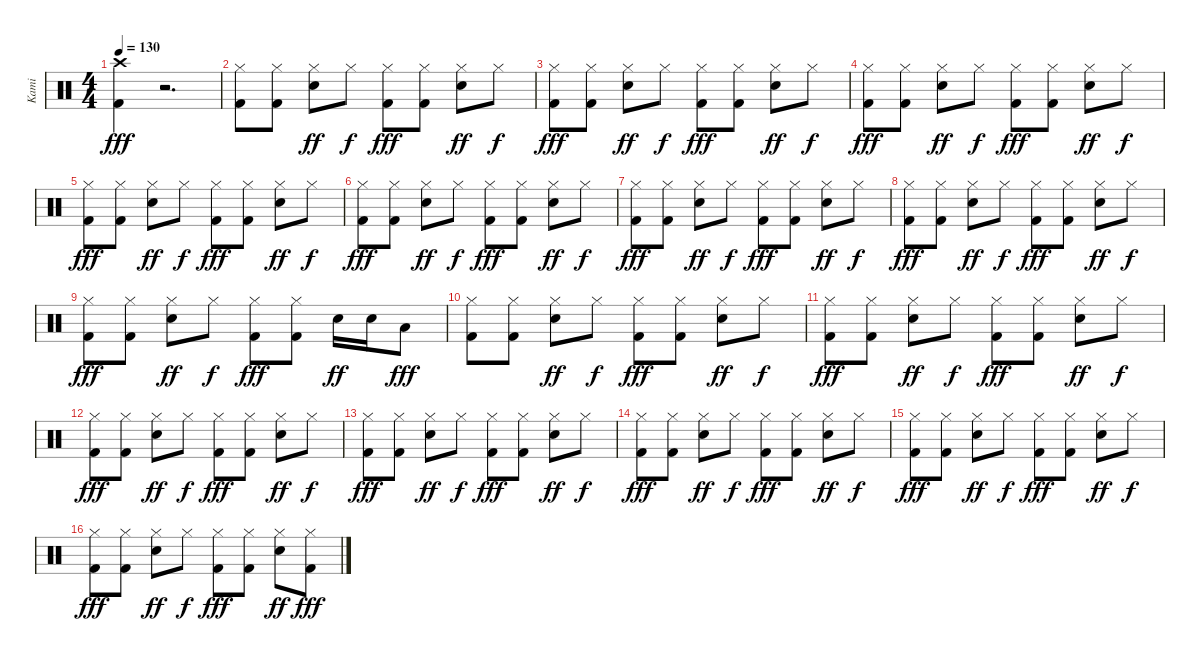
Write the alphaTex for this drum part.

\track ("Kami" "Kami") {instrument percussion}
\staff {score}
\articulation defaults
\ts (4 4)
\tempo 130
\clef neutral
\ks c
("Crash high (hit)" "Kick (hit) 2").4{dy fff} r.2{d} |
("Hi-Hat (closed)" "Kick (hit) 2").8 ("Hi-Hat (closed)" "Kick (hit) 2").8 ("Hi-Hat (closed)" "Snare (hit) 2").8{dy ff} "Hi-Hat (closed)".8{dy f} ("Hi-Hat (closed)" "Kick (hit) 2").8{dy fff} ("Hi-Hat (closed)" "Kick (hit) 2").8 ("Hi-Hat (closed)" "Snare (hit) 2").8{dy ff} "Hi-Hat (closed)".8{dy f} |
("Hi-Hat (closed)" "Kick (hit) 2").8{dy fff} ("Hi-Hat (closed)" "Kick (hit) 2").8 ("Hi-Hat (closed)" "Snare (hit) 2").8{dy ff} "Hi-Hat (closed)".8{dy f} ("Hi-Hat (closed)" "Kick (hit) 2").8{dy fff} ("Hi-Hat (closed)" "Kick (hit) 2").8 ("Hi-Hat (closed)" "Snare (hit) 2").8{dy ff} "Hi-Hat (closed)".8{dy f} |
("Hi-Hat (closed)" "Kick (hit) 2").8{dy fff} ("Hi-Hat (closed)" "Kick (hit) 2").8 ("Hi-Hat (closed)" "Snare (hit) 2").8{dy ff} "Hi-Hat (closed)".8{dy f} ("Hi-Hat (closed)" "Kick (hit) 2").8{dy fff} ("Hi-Hat (closed)" "Kick (hit) 2").8 ("Hi-Hat (closed)" "Snare (hit) 2").8{dy ff} "Hi-Hat (closed)".8{dy f} |
("Hi-Hat (closed)" "Kick (hit) 2").8{dy fff} ("Hi-Hat (closed)" "Kick (hit) 2").8 ("Hi-Hat (closed)" "Snare (hit) 2").8{dy ff} "Hi-Hat (closed)".8{dy f} ("Hi-Hat (closed)" "Kick (hit) 2").8{dy fff} ("Hi-Hat (closed)" "Kick (hit) 2").8 ("Hi-Hat (closed)" "Snare (hit) 2").8{dy ff} "Hi-Hat (closed)".8{dy f} |
("Hi-Hat (closed)" "Kick (hit) 2").8{dy fff} ("Hi-Hat (closed)" "Kick (hit) 2").8 ("Hi-Hat (closed)" "Snare (hit) 2").8{dy ff} "Hi-Hat (closed)".8{dy f} ("Hi-Hat (closed)" "Kick (hit) 2").8{dy fff} ("Hi-Hat (closed)" "Kick (hit) 2").8 ("Hi-Hat (closed)" "Snare (hit) 2").8{dy ff} "Hi-Hat (closed)".8{dy f} |
("Hi-Hat (closed)" "Kick (hit) 2").8{dy fff} ("Hi-Hat (closed)" "Kick (hit) 2").8 ("Hi-Hat (closed)" "Snare (hit) 2").8{dy ff} "Hi-Hat (closed)".8{dy f} ("Hi-Hat (closed)" "Kick (hit) 2").8{dy fff} ("Hi-Hat (closed)" "Kick (hit) 2").8 ("Hi-Hat (closed)" "Snare (hit) 2").8{dy ff} "Hi-Hat (closed)".8{dy f} |
("Hi-Hat (closed)" "Kick (hit) 2").8{dy fff} ("Hi-Hat (closed)" "Kick (hit) 2").8 ("Hi-Hat (closed)" "Snare (hit) 2").8{dy ff} "Hi-Hat (closed)".8{dy f} ("Hi-Hat (closed)" "Kick (hit) 2").8{dy fff} ("Hi-Hat (closed)" "Kick (hit) 2").8 ("Hi-Hat (closed)" "Snare (hit) 2").8{dy ff} "Hi-Hat (closed)".8{dy f} |
("Hi-Hat (closed)" "Kick (hit) 2").8{dy fff} ("Hi-Hat (closed)" "Kick (hit) 2").8 ("Hi-Hat (closed)" "Snare (hit) 2").8{dy ff} "Hi-Hat (closed)".8{dy f} ("Hi-Hat (closed)" "Kick (hit) 2").8{dy fff} ("Hi-Hat (closed)" "Kick (hit) 2").8 "Snare (hit) 2".16{dy ff} "Snare (hit) 2".16 "Low Floor Tom (hit)".8{dy fff} |
("Hi-Hat (closed)" "Kick (hit) 2").8 ("Hi-Hat (closed)" "Kick (hit) 2").8 ("Hi-Hat (closed)" "Snare (hit) 2").8{dy ff} "Hi-Hat (closed)".8{dy f} ("Hi-Hat (closed)" "Kick (hit) 2").8{dy fff} ("Hi-Hat (closed)" "Kick (hit) 2").8 ("Hi-Hat (closed)" "Snare (hit) 2").8{dy ff} "Hi-Hat (closed)".8{dy f} |
("Hi-Hat (closed)" "Kick (hit) 2").8{dy fff} ("Hi-Hat (closed)" "Kick (hit) 2").8 ("Hi-Hat (closed)" "Snare (hit) 2").8{dy ff} "Hi-Hat (closed)".8{dy f} ("Hi-Hat (closed)" "Kick (hit) 2").8{dy fff} ("Hi-Hat (closed)" "Kick (hit) 2").8 ("Hi-Hat (closed)" "Snare (hit) 2").8{dy ff} "Hi-Hat (closed)".8{dy f} |
("Hi-Hat (closed)" "Kick (hit) 2").8{dy fff} ("Hi-Hat (closed)" "Kick (hit) 2").8 ("Hi-Hat (closed)" "Snare (hit) 2").8{dy ff} "Hi-Hat (closed)".8{dy f} ("Hi-Hat (closed)" "Kick (hit) 2").8{dy fff} ("Hi-Hat (closed)" "Kick (hit) 2").8 ("Hi-Hat (closed)" "Snare (hit) 2").8{dy ff} "Hi-Hat (closed)".8{dy f} |
("Hi-Hat (closed)" "Kick (hit) 2").8{dy fff} ("Hi-Hat (closed)" "Kick (hit) 2").8 ("Hi-Hat (closed)" "Snare (hit) 2").8{dy ff} "Hi-Hat (closed)".8{dy f} ("Hi-Hat (closed)" "Kick (hit) 2").8{dy fff} ("Hi-Hat (closed)" "Kick (hit) 2").8 ("Hi-Hat (closed)" "Snare (hit) 2").8{dy ff} "Hi-Hat (closed)".8{dy f} |
("Hi-Hat (closed)" "Kick (hit) 2").8{dy fff} ("Hi-Hat (closed)" "Kick (hit) 2").8 ("Hi-Hat (closed)" "Snare (hit) 2").8{dy ff} "Hi-Hat (closed)".8{dy f} ("Hi-Hat (closed)" "Kick (hit) 2").8{dy fff} ("Hi-Hat (closed)" "Kick (hit) 2").8 ("Hi-Hat (closed)" "Snare (hit) 2").8{dy ff} "Hi-Hat (closed)".8{dy f} |
("Hi-Hat (closed)" "Kick (hit) 2").8{dy fff} ("Hi-Hat (closed)" "Kick (hit) 2").8 ("Hi-Hat (closed)" "Snare (hit) 2").8{dy ff} "Hi-Hat (closed)".8{dy f} ("Hi-Hat (closed)" "Kick (hit) 2").8{dy fff} ("Hi-Hat (closed)" "Kick (hit) 2").8 ("Hi-Hat (closed)" "Snare (hit) 2").8{dy ff} "Hi-Hat (closed)".8{dy f} |
("Hi-Hat (closed)" "Kick (hit) 2").8{dy fff} ("Hi-Hat (closed)" "Kick (hit) 2").8 ("Hi-Hat (closed)" "Snare (hit) 2").8{dy ff} "Hi-Hat (closed)".8{dy f} ("Hi-Hat (closed)" "Kick (hit) 2").8{dy fff} ("Hi-Hat (closed)" "Kick (hit) 2").8 ("Hi-Hat (closed)" "Snare (hit) 2").8{dy ff} ("Hi-Hat (closed)" "Kick (hit) 2").8{dy fff}
